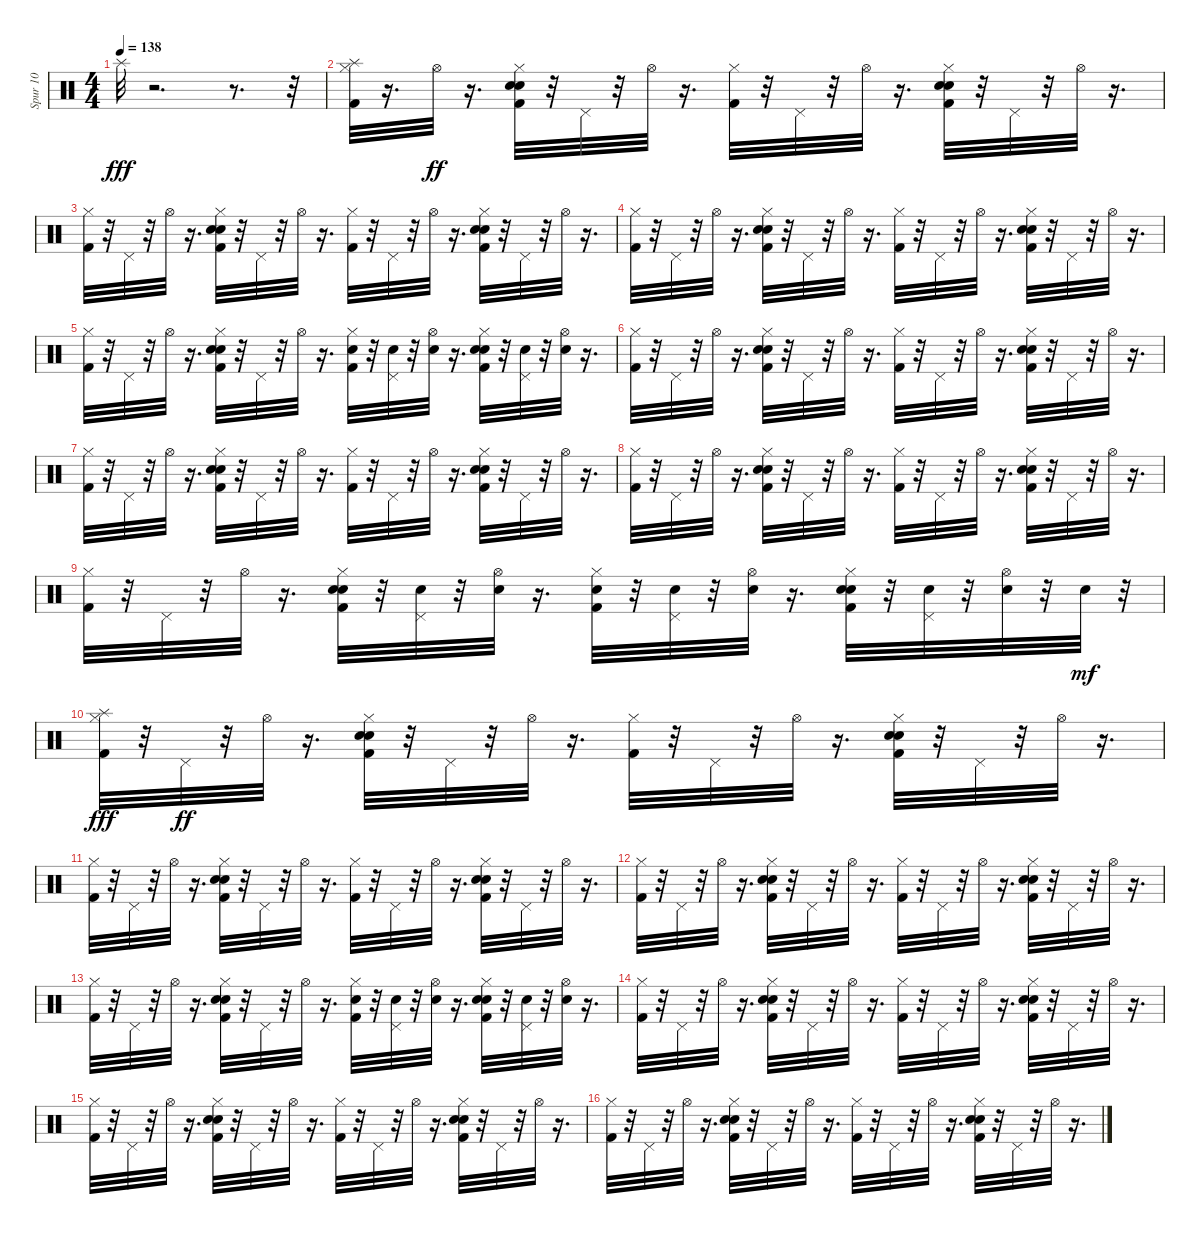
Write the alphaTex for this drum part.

\track ("Spur 10" "Spur 10") {instrument percussion}
\staff {score}
\articulation defaults
\ts (4 4)
\tempo 138
\clef neutral
\ks c "Splash (hit)".32{dy fff}
r.2{d} r.8{d} r.32 |
("Kick (hit) 2" "Hi-Hat (closed)" "Splash (hit)").32 r.16{d} "Hi-Hat (open)".32{dy ff} r.16{d} ("Kick (hit) 2" "Snare (hit) 2" "Hand Clap (hit)" "Hi-Hat (closed)").32 r.32 "Pedal Hi-Hat (hit)".32 r.32 "Hi-Hat (open)".32 r.16{d} ("Kick (hit) 2" "Hi-Hat (closed)").32 r.32 "Pedal Hi-Hat (hit)".32 r.32 "Hi-Hat (open)".32 r.16{d} ("Kick (hit) 2" "Snare (hit) 2" "Hand Clap (hit)" "Hi-Hat (closed)").32 r.32 "Pedal Hi-Hat (hit)".32 r.32 "Hi-Hat (open)".32 r.16{d} |
("Kick (hit) 2" "Hi-Hat (closed)").32 r.32 "Pedal Hi-Hat (hit)".32 r.32 "Hi-Hat (open)".32 r.16{d} ("Kick (hit) 2" "Snare (hit) 2" "Hand Clap (hit)" "Hi-Hat (closed)").32 r.32 "Pedal Hi-Hat (hit)".32 r.32 "Hi-Hat (open)".32 r.16{d} ("Kick (hit) 2" "Hi-Hat (closed)").32 r.32 "Pedal Hi-Hat (hit)".32 r.32 "Hi-Hat (open)".32 r.16{d} ("Kick (hit) 2" "Snare (hit) 2" "Hand Clap (hit)" "Hi-Hat (closed)").32 r.32 "Pedal Hi-Hat (hit)".32 r.32 "Hi-Hat (open)".32 r.16{d} |
("Kick (hit) 2" "Hi-Hat (closed)").32 r.32 "Pedal Hi-Hat (hit)".32 r.32 "Hi-Hat (open)".32 r.16{d} ("Kick (hit) 2" "Snare (hit) 2" "Hand Clap (hit)" "Hi-Hat (closed)").32 r.32 "Pedal Hi-Hat (hit)".32 r.32 "Hi-Hat (open)".32 r.16{d} ("Kick (hit) 2" "Hi-Hat (closed)").32 r.32 "Pedal Hi-Hat (hit)".32 r.32 "Hi-Hat (open)".32 r.16{d} ("Kick (hit) 2" "Snare (hit) 2" "Hand Clap (hit)" "Hi-Hat (closed)").32 r.32 "Pedal Hi-Hat (hit)".32 r.32 "Hi-Hat (open)".32 r.16{d} |
("Kick (hit) 2" "Hi-Hat (closed)").32 r.32 "Pedal Hi-Hat (hit)".32 r.32 "Hi-Hat (open)".32 r.16{d} ("Kick (hit) 2" "Snare (hit) 2" "Hand Clap (hit)" "Hi-Hat (closed)").32 r.32 "Pedal Hi-Hat (hit)".32 r.32 "Hi-Hat (open)".32 r.16{d} ("Kick (hit) 2" "Snare (hit) 2" "Hi-Hat (closed)").32 r.32 ("Snare (hit) 2" "Pedal Hi-Hat (hit)").32 r.32 ("Snare (hit) 2" "Hi-Hat (open)").32 r.16{d} ("Kick (hit) 2" "Snare (hit) 2" "Hand Clap (hit)" "Hi-Hat (closed)").32 r.32 ("Snare (hit) 2" "Pedal Hi-Hat (hit)").32 r.32 ("Snare (hit) 2" "Hi-Hat (open)").32 r.16{d} |
("Kick (hit) 2" "Hi-Hat (closed)").32 r.32 "Pedal Hi-Hat (hit)".32 r.32 "Hi-Hat (open)".32 r.16{d} ("Kick (hit) 2" "Snare (hit) 2" "Hand Clap (hit)" "Hi-Hat (closed)").32 r.32 "Pedal Hi-Hat (hit)".32 r.32 "Hi-Hat (open)".32 r.16{d} ("Kick (hit) 2" "Hi-Hat (closed)").32 r.32 "Pedal Hi-Hat (hit)".32 r.32 "Hi-Hat (open)".32 r.16{d} ("Kick (hit) 2" "Snare (hit) 2" "Hand Clap (hit)" "Hi-Hat (closed)").32 r.32 "Pedal Hi-Hat (hit)".32 r.32 "Hi-Hat (open)".32 r.16{d} |
("Kick (hit) 2" "Hi-Hat (closed)").32 r.32 "Pedal Hi-Hat (hit)".32 r.32 "Hi-Hat (open)".32 r.16{d} ("Kick (hit) 2" "Snare (hit) 2" "Hand Clap (hit)" "Hi-Hat (closed)").32 r.32 "Pedal Hi-Hat (hit)".32 r.32 "Hi-Hat (open)".32 r.16{d} ("Kick (hit) 2" "Hi-Hat (closed)").32 r.32 "Pedal Hi-Hat (hit)".32 r.32 "Hi-Hat (open)".32 r.16{d} ("Kick (hit) 2" "Snare (hit) 2" "Hand Clap (hit)" "Hi-Hat (closed)").32 r.32 "Pedal Hi-Hat (hit)".32 r.32 "Hi-Hat (open)".32 r.16{d} |
("Kick (hit) 2" "Hi-Hat (closed)").32 r.32 "Pedal Hi-Hat (hit)".32 r.32 "Hi-Hat (open)".32 r.16{d} ("Kick (hit) 2" "Snare (hit) 2" "Hand Clap (hit)" "Hi-Hat (closed)").32 r.32 "Pedal Hi-Hat (hit)".32 r.32 "Hi-Hat (open)".32 r.16{d} ("Kick (hit) 2" "Hi-Hat (closed)").32 r.32 "Pedal Hi-Hat (hit)".32 r.32 "Hi-Hat (open)".32 r.16{d} ("Kick (hit) 2" "Snare (hit) 2" "Hand Clap (hit)" "Hi-Hat (closed)").32 r.32 "Pedal Hi-Hat (hit)".32 r.32 "Hi-Hat (open)".32 r.16{d} |
("Kick (hit) 2" "Hi-Hat (closed)").32 r.32 "Pedal Hi-Hat (hit)".32 r.32 "Hi-Hat (open)".32 r.16{d} ("Kick (hit) 2" "Snare (hit) 2" "Hand Clap (hit)" "Hi-Hat (closed)").32 r.32 ("Snare (hit) 2" "Pedal Hi-Hat (hit)").32 r.32 ("Snare (hit) 2" "Hi-Hat (open)").32 r.16{d} ("Kick (hit) 2" "Snare (hit) 2" "Hi-Hat (closed)").32 r.32 ("Snare (hit) 2" "Pedal Hi-Hat (hit)").32 r.32 ("Snare (hit) 2" "Hi-Hat (open)").32 r.16{d} ("Kick (hit) 2" "Snare (hit) 2" "Hand Clap (hit)" "Hi-Hat (closed)").32 r.32 ("Snare (hit) 2" "Pedal Hi-Hat (hit)").32 r.32 ("Snare (hit) 2" "Hi-Hat (open)").32 r.32 "Snare (hit) 2".32{dy mf} r.32 |
("Kick (hit) 2" "Hi-Hat (closed)" "Splash (hit)").32{dy fff} r.32 "Pedal Hi-Hat (hit)".32{dy ff} r.32 "Hi-Hat (open)".32 r.16{d} ("Kick (hit) 2" "Snare (hit) 2" "Hand Clap (hit)" "Hi-Hat (closed)").32 r.32 "Pedal Hi-Hat (hit)".32 r.32 "Hi-Hat (open)".32 r.16{d} ("Kick (hit) 2" "Hi-Hat (closed)").32 r.32 "Pedal Hi-Hat (hit)".32 r.32 "Hi-Hat (open)".32 r.16{d} ("Kick (hit) 2" "Snare (hit) 2" "Hand Clap (hit)" "Hi-Hat (closed)").32 r.32 "Pedal Hi-Hat (hit)".32 r.32 "Hi-Hat (open)".32 r.16{d} |
("Kick (hit) 2" "Hi-Hat (closed)").32 r.32 "Pedal Hi-Hat (hit)".32 r.32 "Hi-Hat (open)".32 r.16{d} ("Kick (hit) 2" "Snare (hit) 2" "Hand Clap (hit)" "Hi-Hat (closed)").32 r.32 "Pedal Hi-Hat (hit)".32 r.32 "Hi-Hat (open)".32 r.16{d} ("Kick (hit) 2" "Hi-Hat (closed)").32 r.32 "Pedal Hi-Hat (hit)".32 r.32 "Hi-Hat (open)".32 r.16{d} ("Kick (hit) 2" "Snare (hit) 2" "Hand Clap (hit)" "Hi-Hat (closed)").32 r.32 "Pedal Hi-Hat (hit)".32 r.32 "Hi-Hat (open)".32 r.16{d} |
("Kick (hit) 2" "Hi-Hat (closed)").32 r.32 "Pedal Hi-Hat (hit)".32 r.32 "Hi-Hat (open)".32 r.16{d} ("Kick (hit) 2" "Snare (hit) 2" "Hand Clap (hit)" "Hi-Hat (closed)").32 r.32 "Pedal Hi-Hat (hit)".32 r.32 "Hi-Hat (open)".32 r.16{d} ("Kick (hit) 2" "Hi-Hat (closed)").32 r.32 "Pedal Hi-Hat (hit)".32 r.32 "Hi-Hat (open)".32 r.16{d} ("Kick (hit) 2" "Snare (hit) 2" "Hand Clap (hit)" "Hi-Hat (closed)").32 r.32 "Pedal Hi-Hat (hit)".32 r.32 "Hi-Hat (open)".32 r.16{d} |
("Kick (hit) 2" "Hi-Hat (closed)").32 r.32 "Pedal Hi-Hat (hit)".32 r.32 "Hi-Hat (open)".32 r.16{d} ("Kick (hit) 2" "Snare (hit) 2" "Hand Clap (hit)" "Hi-Hat (closed)").32 r.32 "Pedal Hi-Hat (hit)".32 r.32 "Hi-Hat (open)".32 r.16{d} ("Kick (hit) 2" "Snare (hit) 2" "Hi-Hat (closed)").32 r.32 ("Snare (hit) 2" "Pedal Hi-Hat (hit)").32 r.32 ("Snare (hit) 2" "Hi-Hat (open)").32 r.16{d} ("Kick (hit) 2" "Snare (hit) 2" "Hand Clap (hit)" "Hi-Hat (closed)").32 r.32 ("Snare (hit) 2" "Pedal Hi-Hat (hit)").32 r.32 ("Snare (hit) 2" "Hi-Hat (open)").32 r.16{d} |
("Kick (hit) 2" "Hi-Hat (closed)").32 r.32 "Pedal Hi-Hat (hit)".32 r.32 "Hi-Hat (open)".32 r.16{d} ("Kick (hit) 2" "Snare (hit) 2" "Hand Clap (hit)" "Hi-Hat (closed)").32 r.32 "Pedal Hi-Hat (hit)".32 r.32 "Hi-Hat (open)".32 r.16{d} ("Kick (hit) 2" "Hi-Hat (closed)").32 r.32 "Pedal Hi-Hat (hit)".32 r.32 "Hi-Hat (open)".32 r.16{d} ("Kick (hit) 2" "Snare (hit) 2" "Hand Clap (hit)" "Hi-Hat (closed)").32 r.32 "Pedal Hi-Hat (hit)".32 r.32 "Hi-Hat (open)".32 r.16{d} |
("Kick (hit) 2" "Hi-Hat (closed)").32 r.32 "Pedal Hi-Hat (hit)".32 r.32 "Hi-Hat (open)".32 r.16{d} ("Kick (hit) 2" "Snare (hit) 2" "Hand Clap (hit)" "Hi-Hat (closed)").32 r.32 "Pedal Hi-Hat (hit)".32 r.32 "Hi-Hat (open)".32 r.16{d} ("Kick (hit) 2" "Hi-Hat (closed)").32 r.32 "Pedal Hi-Hat (hit)".32 r.32 "Hi-Hat (open)".32 r.16{d} ("Kick (hit) 2" "Snare (hit) 2" "Hand Clap (hit)" "Hi-Hat (closed)").32 r.32 "Pedal Hi-Hat (hit)".32 r.32 "Hi-Hat (open)".32 r.16{d} |
("Kick (hit) 2" "Hi-Hat (closed)").32 r.32 "Pedal Hi-Hat (hit)".32 r.32 "Hi-Hat (open)".32 r.16{d} ("Kick (hit) 2" "Snare (hit) 2" "Hand Clap (hit)" "Hi-Hat (closed)").32 r.32 "Pedal Hi-Hat (hit)".32 r.32 "Hi-Hat (open)".32 r.16{d} ("Kick (hit) 2" "Hi-Hat (closed)").32 r.32 "Pedal Hi-Hat (hit)".32 r.32 "Hi-Hat (open)".32 r.16{d} ("Kick (hit) 2" "Snare (hit) 2" "Hand Clap (hit)" "Hi-Hat (closed)").32 r.32 "Pedal Hi-Hat (hit)".32 r.32 "Hi-Hat (open)".32 r.16{d}
